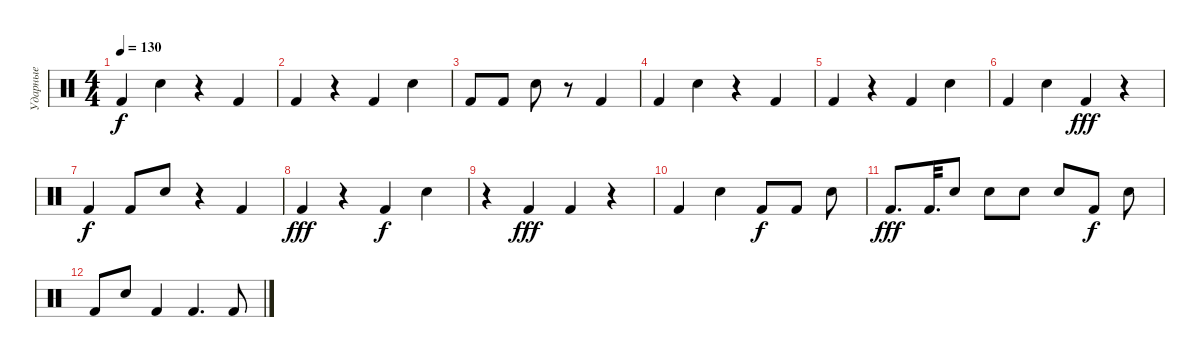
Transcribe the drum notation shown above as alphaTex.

\track ("Ударные" "Ударные") {instrument percussion}
\staff {score}
\articulation defaults
\ts (4 4)
\tempo 130
\clef neutral
\ks c "Kick (hit) 2".4{dy f} "Electric Snare (hit)".4
r.4 "Kick (hit) 2".4 |
"Kick (hit) 2".4 r.4 "Kick (hit) 2".4 "Electric Snare (hit)".4 |
"Kick (hit) 2".8 "Kick (hit) 2".8 "Electric Snare (hit)".8 r.8 "Kick (hit) 2".4 |
"Kick (hit) 2".4 "Electric Snare (hit)".4 r.4 "Kick (hit) 2".4 |
"Kick (hit) 2".4 r.4 "Kick (hit) 2".4 "Electric Snare (hit)".4 |
"Kick (hit) 2".4 "Electric Snare (hit)".4 "Kick (hit) 2".4{dy fff} r.4 |
"Kick (hit) 2".4{dy f} "Kick (hit) 2".8 "Electric Snare (hit)".8 r.4 "Kick (hit) 2".4 |
"Kick (hit) 2".4{dy fff} r.4 "Kick (hit) 2".4{dy f} "Electric Snare (hit)".4 |
r.4 "Kick (hit) 2".4{dy fff} "Kick (hit) 2".4 r.4 |
"Kick (hit) 2".4 "Electric Snare (hit)".4 "Kick (hit) 2".8{dy f} "Kick (hit) 2".8 "Electric Snare (hit)".8 |
"Kick (hit) 2".8{d dy fff} "Kick (hit) 2".32{d} "Electric Snare (hit)".8 "Electric Snare (hit)".8 "Electric Snare (hit)".8 "Electric Snare (hit)".8 "Kick (hit) 2".8{dy f} "Electric Snare (hit)".8 |
"Kick (hit) 2".8 "Electric Snare (hit)".8 "Kick (hit) 2".4 "Kick (hit) 2".4{d} "Kick (hit) 2".8
